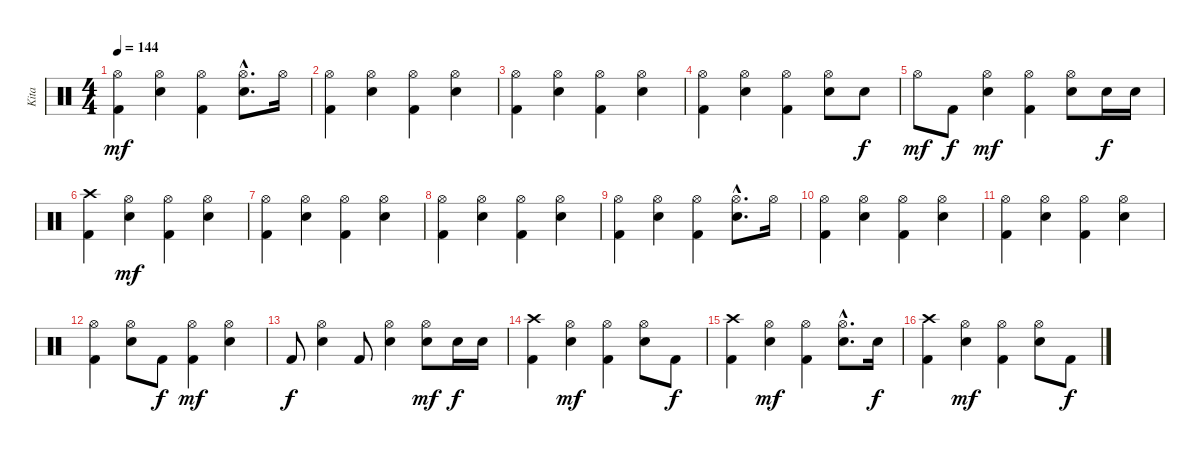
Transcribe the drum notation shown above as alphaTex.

\track ("Kita" "Kita") {instrument percussion}
\staff {score}
\articulation defaults
\ts (4 4)
\tempo 144
\clef neutral
\ks c
("Kick (hit) 2" "Hi-Hat (open)").4{dy mf} ("Hi-Hat (open)" "Snare (hit) 2").4 ("Kick (hit) 2" "Hi-Hat (open)").4 ("Hi-Hat (open)"{hac} "Snare (hit) 2"{hac}).8{d} "Hi-Hat (open)".16 |
("Kick (hit) 2" "Hi-Hat (open)").4 ("Hi-Hat (open)" "Snare (hit) 2").4 ("Kick (hit) 2" "Hi-Hat (open)").4 ("Hi-Hat (open)" "Snare (hit) 2").4 |
("Kick (hit) 2" "Hi-Hat (open)").4 ("Hi-Hat (open)" "Snare (hit) 2").4 ("Kick (hit) 2" "Hi-Hat (open)").4 ("Hi-Hat (open)" "Snare (hit) 2").4 |
("Kick (hit) 2" "Hi-Hat (open)").4 ("Hi-Hat (open)" "Snare (hit) 2").4 ("Kick (hit) 2" "Hi-Hat (open)").4 ("Hi-Hat (open)" "Snare (hit) 2").8 "Snare (hit) 2".8{dy f} |
"Hi-Hat (open)".8{dy mf} "Kick (hit) 2".8{dy f} ("Hi-Hat (open)" "Snare (hit) 2").4{dy mf} ("Kick (hit) 2" "Hi-Hat (open)").4 ("Hi-Hat (open)" "Snare (hit) 2").8 "Snare (hit) 2".16{dy f} "Snare (hit) 2".16 |
("Kick (hit) 2" "Crash high (hit)").4 ("Hi-Hat (open)" "Snare (hit) 2").4{dy mf} ("Kick (hit) 2" "Hi-Hat (open)").4 ("Hi-Hat (open)" "Snare (hit) 2").4 |
("Kick (hit) 2" "Hi-Hat (open)").4 ("Hi-Hat (open)" "Snare (hit) 2").4 ("Kick (hit) 2" "Hi-Hat (open)").4 ("Hi-Hat (open)" "Snare (hit) 2").4 |
("Kick (hit) 2" "Hi-Hat (open)").4 ("Hi-Hat (open)" "Snare (hit) 2").4 ("Kick (hit) 2" "Hi-Hat (open)").4 ("Hi-Hat (open)" "Snare (hit) 2").4 |
("Kick (hit) 2" "Hi-Hat (open)").4 ("Hi-Hat (open)" "Snare (hit) 2").4 ("Kick (hit) 2" "Hi-Hat (open)").4 ("Hi-Hat (open)"{hac} "Snare (hit) 2"{hac}).8{d} "Hi-Hat (open)".16 |
("Kick (hit) 2" "Hi-Hat (open)").4 ("Hi-Hat (open)" "Snare (hit) 2").4 ("Kick (hit) 2" "Hi-Hat (open)").4 ("Hi-Hat (open)" "Snare (hit) 2").4 |
("Kick (hit) 2" "Hi-Hat (open)").4 ("Hi-Hat (open)" "Snare (hit) 2").4 ("Kick (hit) 2" "Hi-Hat (open)").4 ("Hi-Hat (open)" "Snare (hit) 2").4 |
("Kick (hit) 2" "Hi-Hat (open)").4 ("Hi-Hat (open)" "Snare (hit) 2").8 "Kick (hit) 2".8{dy f} ("Kick (hit) 2" "Hi-Hat (open)").4{dy mf} ("Hi-Hat (open)" "Snare (hit) 2").4 |
"Kick (hit) 2".8{dy f} ("Hi-Hat (open)" "Snare (hit) 2").4 "Kick (hit) 2".8 ("Hi-Hat (open)" "Snare (hit) 2").4 ("Hi-Hat (open)" "Snare (hit) 2").8{dy mf} "Snare (hit) 2".16{dy f} "Snare (hit) 2".16 |
("Kick (hit) 2" "Crash high (hit)").4 ("Hi-Hat (open)" "Snare (hit) 2").4{dy mf} ("Kick (hit) 2" "Hi-Hat (open)").4 ("Hi-Hat (open)" "Snare (hit) 2").8 "Kick (hit) 2".8{dy f} |
("Kick (hit) 2" "Crash high (hit)").4 ("Hi-Hat (open)" "Snare (hit) 2").4{dy mf} ("Kick (hit) 2" "Hi-Hat (open)").4 ("Hi-Hat (open)"{hac} "Snare (hit) 2"{hac}).8{d} "Snare (hit) 2".16{dy f} |
("Kick (hit) 2" "Crash high (hit)").4 ("Hi-Hat (open)" "Snare (hit) 2").4{dy mf} ("Kick (hit) 2" "Hi-Hat (open)").4 ("Hi-Hat (open)" "Snare (hit) 2").8 "Kick (hit) 2".8{dy f}
